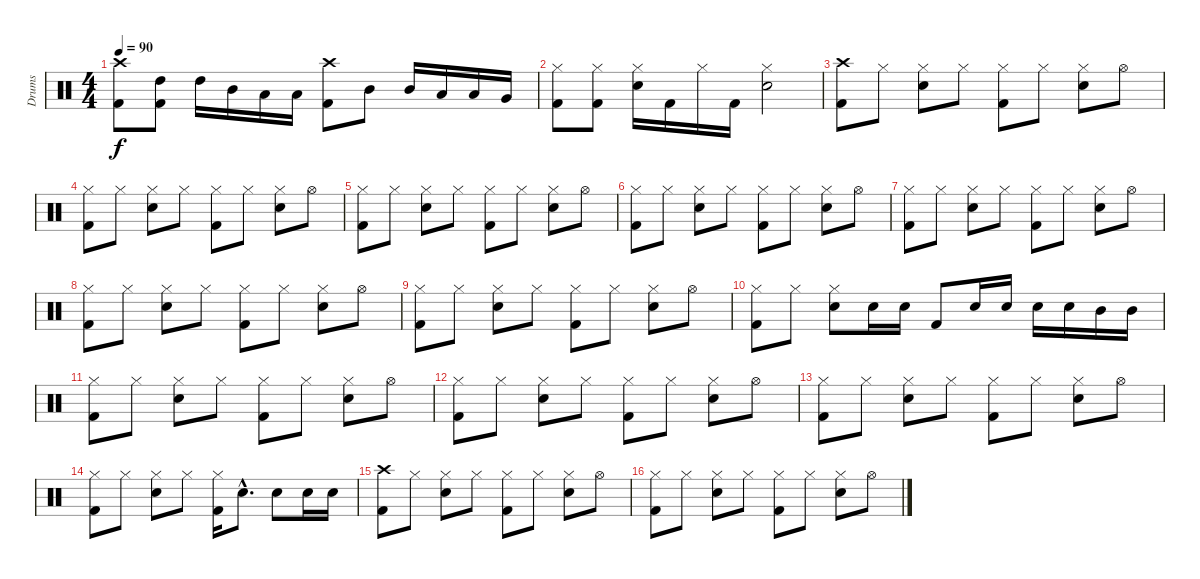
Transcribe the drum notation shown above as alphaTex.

\track ("Drums" "Drums") {instrument percussion}
\staff {score}
\articulation defaults
\ts (4 4)
\tempo 90
\clef neutral
\ks c
("Crash high (hit)" "Kick (hit) 2").8{dy f} ("High Tom (hit)" "Kick (hit) 2").8 "High Tom (hit)".16 "Mid Tom (hit)".16 "Low Tom (hit)".16 "Low Floor Tom (hit)".16 ("Crash high (hit)" "Kick (hit) 2").8 "Mid Tom (hit)".8 "Mid Tom (hit)".16 "Low Tom (hit)".16 "Low Floor Tom (hit)".16 "Very Low Tom (hit)".16 |
("Hi-Hat (closed)" "Kick (hit) 2").8 ("Hi-Hat (closed)" "Kick (hit) 2").8 ("Hi-Hat (closed)" "Snare (hit) 2").16 "Kick (hit) 2".16 "Hi-Hat (closed)".16 "Kick (hit) 2".16 ("Hi-Hat (closed)" "Snare (hit) 2").2 |
("Crash high (hit)" "Kick (hit) 2").8 "Hi-Hat (closed)".8 ("Hi-Hat (closed)" "Snare (hit) 2").8 "Hi-Hat (closed)".8 ("Hi-Hat (closed)" "Kick (hit) 2").8 "Hi-Hat (closed)".8 ("Hi-Hat (closed)" "Snare (hit) 2").8 "Hi-Hat (open)".8 |
("Hi-Hat (closed)" "Kick (hit) 2").8 "Hi-Hat (closed)".8 ("Hi-Hat (closed)" "Snare (hit) 2").8 "Hi-Hat (closed)".8 ("Hi-Hat (closed)" "Kick (hit) 2").8 "Hi-Hat (closed)".8 ("Hi-Hat (closed)" "Snare (hit) 2").8 "Hi-Hat (open)".8 |
("Hi-Hat (closed)" "Kick (hit) 2").8 "Hi-Hat (closed)".8 ("Hi-Hat (closed)" "Snare (hit) 2").8 "Hi-Hat (closed)".8 ("Hi-Hat (closed)" "Kick (hit) 2").8 "Hi-Hat (closed)".8 ("Hi-Hat (closed)" "Snare (hit) 2").8 "Hi-Hat (open)".8 |
("Hi-Hat (closed)" "Kick (hit) 2").8 "Hi-Hat (closed)".8 ("Hi-Hat (closed)" "Snare (hit) 2").8 "Hi-Hat (closed)".8 ("Hi-Hat (closed)" "Kick (hit) 2").8 "Hi-Hat (closed)".8 ("Hi-Hat (closed)" "Snare (hit) 2").8 "Hi-Hat (open)".8 |
("Hi-Hat (closed)" "Kick (hit) 2").8 "Hi-Hat (closed)".8 ("Hi-Hat (closed)" "Snare (hit) 2").8 "Hi-Hat (closed)".8 ("Hi-Hat (closed)" "Kick (hit) 2").8 "Hi-Hat (closed)".8 ("Hi-Hat (closed)" "Snare (hit) 2").8 "Hi-Hat (open)".8 |
("Hi-Hat (closed)" "Kick (hit) 2").8 "Hi-Hat (closed)".8 ("Hi-Hat (closed)" "Snare (hit) 2").8 "Hi-Hat (closed)".8 ("Hi-Hat (closed)" "Kick (hit) 2").8 "Hi-Hat (closed)".8 ("Hi-Hat (closed)" "Snare (hit) 2").8 "Hi-Hat (open)".8 |
("Hi-Hat (closed)" "Kick (hit) 2").8 "Hi-Hat (closed)".8 ("Hi-Hat (closed)" "Snare (hit) 2").8 "Hi-Hat (closed)".8 ("Hi-Hat (closed)" "Kick (hit) 2").8 "Hi-Hat (closed)".8 ("Hi-Hat (closed)" "Snare (hit) 2").8 "Hi-Hat (open)".8 |
("Hi-Hat (closed)" "Kick (hit) 2").8 "Hi-Hat (closed)".8 ("Hi-Hat (closed)" "Snare (hit) 2").8 "Snare (hit) 2".16 "Snare (hit) 2".16 "Kick (hit) 2".8 "Snare (hit) 2".16 "Snare (hit) 2".16 "Snare (hit) 2".16 "Snare (hit) 2".16 "Mid Tom (hit)".16 "Mid Tom (hit)".16 |
("Hi-Hat (closed)" "Kick (hit) 2").8 "Hi-Hat (closed)".8 ("Hi-Hat (closed)" "Snare (hit) 2").8 "Hi-Hat (closed)".8 ("Hi-Hat (closed)" "Kick (hit) 2").8 "Hi-Hat (closed)".8 ("Hi-Hat (closed)" "Snare (hit) 2").8 "Hi-Hat (open)".8 |
("Hi-Hat (closed)" "Kick (hit) 2").8 "Hi-Hat (closed)".8 ("Hi-Hat (closed)" "Snare (hit) 2").8 "Hi-Hat (closed)".8 ("Hi-Hat (closed)" "Kick (hit) 2").8 "Hi-Hat (closed)".8 ("Hi-Hat (closed)" "Snare (hit) 2").8 "Hi-Hat (open)".8 |
("Hi-Hat (closed)" "Kick (hit) 2").8 "Hi-Hat (closed)".8 ("Hi-Hat (closed)" "Snare (hit) 2").8 "Hi-Hat (closed)".8 ("Hi-Hat (closed)" "Kick (hit) 2").8 "Hi-Hat (closed)".8 ("Hi-Hat (closed)" "Snare (hit) 2").8 "Hi-Hat (open)".8 |
("Hi-Hat (closed)" "Kick (hit) 2").8 "Hi-Hat (closed)".8 ("Hi-Hat (closed)" "Snare (hit) 2").8 "Hi-Hat (closed)".8 ("Hi-Hat (closed)" "Kick (hit) 2").16 "Snare (hit) 2"{hac}.8{d} "Snare (hit) 2".8 "Snare (hit) 2".16 "Snare (hit) 2".16 |
("Crash high (hit)" "Kick (hit) 2").8 "Hi-Hat (closed)".8 ("Hi-Hat (closed)" "Snare (hit) 2").8 "Hi-Hat (closed)".8 ("Hi-Hat (closed)" "Kick (hit) 2").8 "Hi-Hat (closed)".8 ("Hi-Hat (closed)" "Snare (hit) 2").8 "Hi-Hat (open)".8 |
("Hi-Hat (closed)" "Kick (hit) 2").8 "Hi-Hat (closed)".8 ("Hi-Hat (closed)" "Snare (hit) 2").8 "Hi-Hat (closed)".8 ("Hi-Hat (closed)" "Kick (hit) 2").8 "Hi-Hat (closed)".8 ("Hi-Hat (closed)" "Snare (hit) 2").8 "Hi-Hat (open)".8
